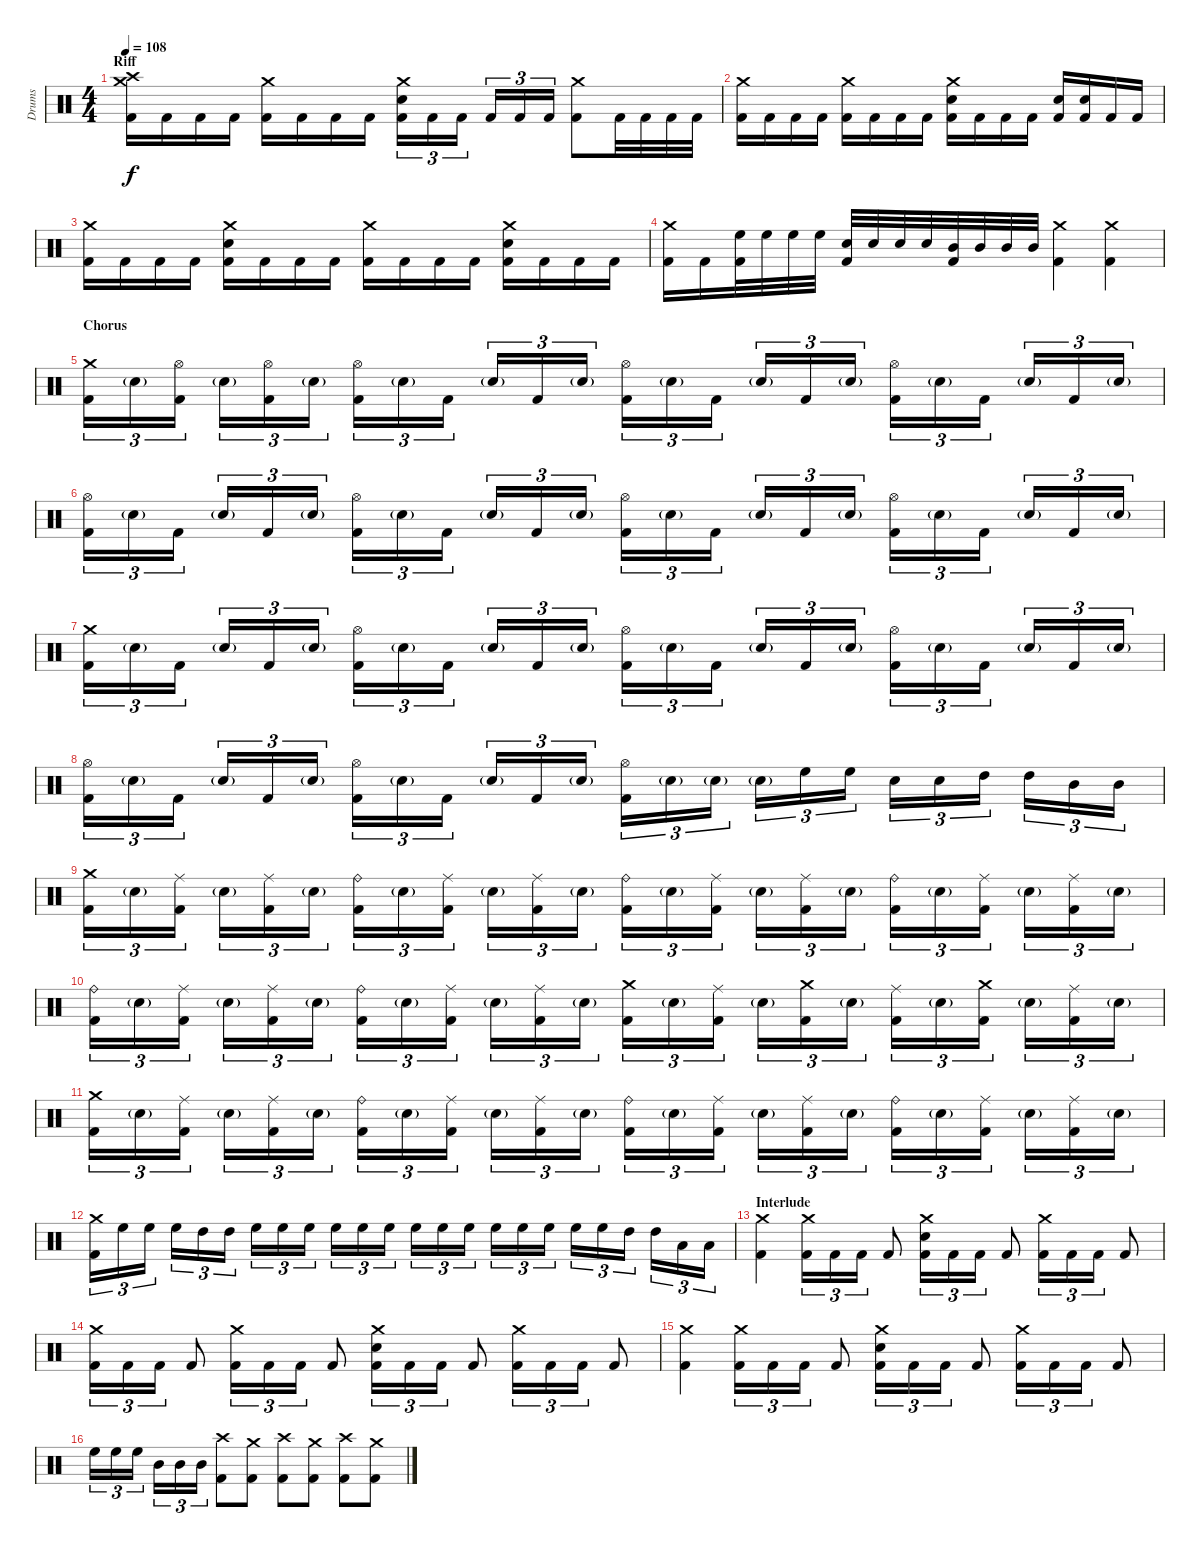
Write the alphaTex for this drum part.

\track ("Drums" "Drums") {instrument percussion}
\staff {score}
\articulation defaults
\ts (4 4)
\section ("" "Riff")
\tempo 108
\clef neutral
\ks c
("Crash medium (hit)" "Crash high (hit)" "Kick (hit) 2").16{dy f} "Kick (hit) 2".16 "Kick (hit) 2".16 "Kick (hit) 2".16 ("Crash medium (hit)" "Kick (hit) 2").16 "Kick (hit) 2".16 "Kick (hit) 2".16 "Kick (hit) 2".16 ("Crash medium (hit)" "Snare (hit) 2" "Kick (hit) 2").16{tu (3 2)} "Kick (hit) 2".16{tu (3 2)} "Kick (hit) 2".16{tu (3 2)} "Kick (hit) 2".16{tu (3 2)} "Kick (hit) 2".16{tu (3 2)} "Kick (hit) 2".16{tu (3 2)} ("Crash medium (hit)" "Kick (hit) 2").8 "Kick (hit) 2".32 "Kick (hit) 2".32 "Kick (hit) 2".32 "Kick (hit) 2".32 |
("Crash medium (hit)" "Kick (hit) 2").16 "Kick (hit) 2".16 "Kick (hit) 2".16 "Kick (hit) 2".16 ("Crash medium (hit)" "Kick (hit) 2").16 "Kick (hit) 2".16 "Kick (hit) 2".16 "Kick (hit) 2".16 ("Crash medium (hit)" "Snare (hit) 2" "Kick (hit) 2").16 "Kick (hit) 2".16 "Kick (hit) 2".16 "Kick (hit) 2".16 ("Snare (hit) 2" "Kick (hit) 2").16 ("Snare (hit) 2" "Kick (hit) 2").16 "Kick (hit) 2".16 "Kick (hit) 2".16 |
("Crash medium (hit)" "Kick (hit) 2").16 "Kick (hit) 2".16 "Kick (hit) 2".16 "Kick (hit) 2".16 ("Crash medium (hit)" "Snare (hit) 2" "Kick (hit) 2").16 "Kick (hit) 2".16 "Kick (hit) 2".16 "Kick (hit) 2".16 ("Crash medium (hit)" "Kick (hit) 2").16 "Kick (hit) 2".16 "Kick (hit) 2".16 "Kick (hit) 2".16 ("Crash medium (hit)" "Snare (hit) 2" "Kick (hit) 2").16 "Kick (hit) 2".16 "Kick (hit) 2".16 "Kick (hit) 2".16 |
("Crash medium (hit)" "Kick (hit) 2").16 "Kick (hit) 2".16 ("High Floor Tom (hit)" "Kick (hit) 2").32 "High Floor Tom (hit)".32 "High Floor Tom (hit)".32 "High Floor Tom (hit)".32 ("Snare (hit) 2" "Kick (hit) 2").32 "Snare (hit) 2".32 "Snare (hit) 2".32 "Snare (hit) 2".32 ("Mid Tom (hit)" "Kick (hit) 2").32 "Mid Tom (hit)".32 "Mid Tom (hit)".32 "Mid Tom (hit)".32 ("Crash medium (hit)" "Kick (hit) 2").4 ("Crash medium (hit)" "Kick (hit) 2").4 |
\section ("" "Chorus")
("Crash medium (hit)" "Kick (hit) 2").16{tu (3 2)} "Snare (hit) 2"{g}.16{tu (3 2)} ("Hi-Hat (open)" "Kick (hit) 2").16{tu (3 2)} "Snare (hit) 2"{g}.16{tu (3 2)} ("Hi-Hat (open)" "Kick (hit) 2").16{tu (3 2)} "Snare (hit) 2"{g}.16{tu (3 2)} ("Hi-Hat (open)" "Kick (hit) 2").16{tu (3 2)} "Snare (hit) 2"{g}.16{tu (3 2)} "Kick (hit) 2".16{tu (3 2)} "Snare (hit) 2"{g}.16{tu (3 2)} "Kick (hit) 2".16{tu (3 2)} "Snare (hit) 2"{g}.16{tu (3 2)} ("Hi-Hat (open)" "Kick (hit) 2").16{tu (3 2)} "Snare (hit) 2"{g}.16{tu (3 2)} "Kick (hit) 2".16{tu (3 2)} "Snare (hit) 2"{g}.16{tu (3 2)} "Kick (hit) 2".16{tu (3 2)} "Snare (hit) 2"{g}.16{tu (3 2)} ("Hi-Hat (open)" "Kick (hit) 2").16{tu (3 2)} "Snare (hit) 2"{g}.16{tu (3 2)} "Kick (hit) 2".16{tu (3 2)} "Snare (hit) 2"{g}.16{tu (3 2)} "Kick (hit) 2".16{tu (3 2)} "Snare (hit) 2"{g}.16{tu (3 2)} |
("Hi-Hat (open)" "Kick (hit) 2").16{tu (3 2)} "Snare (hit) 2"{g}.16{tu (3 2)} "Kick (hit) 2".16{tu (3 2)} "Snare (hit) 2"{g}.16{tu (3 2)} "Kick (hit) 2".16{tu (3 2)} "Snare (hit) 2"{g}.16{tu (3 2)} ("Hi-Hat (open)" "Kick (hit) 2").16{tu (3 2)} "Snare (hit) 2"{g}.16{tu (3 2)} "Kick (hit) 2".16{tu (3 2)} "Snare (hit) 2"{g}.16{tu (3 2)} "Kick (hit) 2".16{tu (3 2)} "Snare (hit) 2"{g}.16{tu (3 2)} ("Hi-Hat (open)" "Kick (hit) 2").16{tu (3 2)} "Snare (hit) 2"{g}.16{tu (3 2)} "Kick (hit) 2".16{tu (3 2)} "Snare (hit) 2"{g}.16{tu (3 2)} "Kick (hit) 2".16{tu (3 2)} "Snare (hit) 2"{g}.16{tu (3 2)} ("Hi-Hat (open)" "Kick (hit) 2").16{tu (3 2)} "Snare (hit) 2"{g}.16{tu (3 2)} "Kick (hit) 2".16{tu (3 2)} "Snare (hit) 2"{g}.16{tu (3 2)} "Kick (hit) 2".16{tu (3 2)} "Snare (hit) 2"{g}.16{tu (3 2)} |
("Crash medium (hit)" "Kick (hit) 2").16{tu (3 2)} "Snare (hit) 2"{g}.16{tu (3 2)} "Kick (hit) 2".16{tu (3 2)} "Snare (hit) 2"{g}.16{tu (3 2)} "Kick (hit) 2".16{tu (3 2)} "Snare (hit) 2"{g}.16{tu (3 2)} ("Hi-Hat (open)" "Kick (hit) 2").16{tu (3 2)} "Snare (hit) 2"{g}.16{tu (3 2)} "Kick (hit) 2".16{tu (3 2)} "Snare (hit) 2"{g}.16{tu (3 2)} "Kick (hit) 2".16{tu (3 2)} "Snare (hit) 2"{g}.16{tu (3 2)} ("Hi-Hat (open)" "Kick (hit) 2").16{tu (3 2)} "Snare (hit) 2"{g}.16{tu (3 2)} "Kick (hit) 2".16{tu (3 2)} "Snare (hit) 2"{g}.16{tu (3 2)} "Kick (hit) 2".16{tu (3 2)} "Snare (hit) 2"{g}.16{tu (3 2)} ("Hi-Hat (open)" "Kick (hit) 2").16{tu (3 2)} "Snare (hit) 2"{g}.16{tu (3 2)} "Kick (hit) 2".16{tu (3 2)} "Snare (hit) 2"{g}.16{tu (3 2)} "Kick (hit) 2".16{tu (3 2)} "Snare (hit) 2"{g}.16{tu (3 2)} |
("Hi-Hat (open)" "Kick (hit) 2").16{tu (3 2)} "Snare (hit) 2"{g}.16{tu (3 2)} "Kick (hit) 2".16{tu (3 2)} "Snare (hit) 2"{g}.16{tu (3 2)} "Kick (hit) 2".16{tu (3 2)} "Snare (hit) 2"{g}.16{tu (3 2)} ("Hi-Hat (open)" "Kick (hit) 2").16{tu (3 2)} "Snare (hit) 2"{g}.16{tu (3 2)} "Kick (hit) 2".16{tu (3 2)} "Snare (hit) 2"{g}.16{tu (3 2)} "Kick (hit) 2".16{tu (3 2)} "Snare (hit) 2"{g}.16{tu (3 2)} ("Hi-Hat (open)" "Kick (hit) 2").16{tu (3 2)} "Snare (hit) 2"{g}.16{tu (3 2)} "Snare (hit) 2"{g}.16{tu (3 2)} "Snare (hit) 2"{g}.16{tu (3 2)} "High Floor Tom (hit)".16{tu (3 2)} "High Floor Tom (hit)".16{tu (3 2)} "Snare (hit) 2".16{tu (3 2)} "Snare (hit) 2".16{tu (3 2)} "High Tom (hit)".16{tu (3 2)} "High Tom (hit)".16{tu (3 2)} "Mid Tom (hit)".16{tu (3 2)} "Mid Tom (hit)".16{tu (3 2)} |
("Crash medium (hit)" "Kick (hit) 2").16{tu (3 2)} "Snare (hit) 2"{g}.16{tu (3 2)} ("Ride (middle)" "Kick (hit) 2").16{tu (3 2)} "Snare (hit) 2"{g}.16{tu (3 2)} ("Ride (middle)" "Kick (hit) 2").16{tu (3 2)} "Snare (hit) 2"{g}.16{tu (3 2)} ("Ride (bell)" "Kick (hit) 2").16{tu (3 2)} "Snare (hit) 2"{g}.16{tu (3 2)} ("Ride (middle)" "Kick (hit) 2").16{tu (3 2)} "Snare (hit) 2"{g}.16{tu (3 2)} ("Ride (middle)" "Kick (hit) 2").16{tu (3 2)} "Snare (hit) 2"{g}.16{tu (3 2)} ("Ride (bell)" "Kick (hit) 2").16{tu (3 2)} "Snare (hit) 2"{g}.16{tu (3 2)} ("Ride (middle)" "Kick (hit) 2").16{tu (3 2)} "Snare (hit) 2"{g}.16{tu (3 2)} ("Ride (middle)" "Kick (hit) 2").16{tu (3 2)} "Snare (hit) 2"{g}.16{tu (3 2)} ("Ride (bell)" "Kick (hit) 2").16{tu (3 2)} "Snare (hit) 2"{g}.16{tu (3 2)} ("Ride (middle)" "Kick (hit) 2").16{tu (3 2)} "Snare (hit) 2"{g}.16{tu (3 2)} ("Ride (middle)" "Kick (hit) 2").16{tu (3 2)} "Snare (hit) 2"{g}.16{tu (3 2)} |
("Ride (bell)" "Kick (hit) 2").16{tu (3 2)} "Snare (hit) 2"{g}.16{tu (3 2)} ("Ride (middle)" "Kick (hit) 2").16{tu (3 2)} "Snare (hit) 2"{g}.16{tu (3 2)} ("Ride (middle)" "Kick (hit) 2").16{tu (3 2)} "Snare (hit) 2"{g}.16{tu (3 2)} ("Ride (bell)" "Kick (hit) 2").16{tu (3 2)} "Snare (hit) 2"{g}.16{tu (3 2)} ("Ride (middle)" "Kick (hit) 2").16{tu (3 2)} "Snare (hit) 2"{g}.16{tu (3 2)} ("Ride (middle)" "Kick (hit) 2").16{tu (3 2)} "Snare (hit) 2"{g}.16{tu (3 2)} ("Crash medium (hit)" "Kick (hit) 2").16{tu (3 2)} "Snare (hit) 2"{g}.16{tu (3 2)} ("Ride (middle)" "Kick (hit) 2").16{tu (3 2)} "Snare (hit) 2"{g}.16{tu (3 2)} ("Crash medium (hit)" "Kick (hit) 2").16{tu (3 2)} "Snare (hit) 2"{g}.16{tu (3 2)} ("Ride (middle)" "Kick (hit) 2").16{tu (3 2)} "Snare (hit) 2"{g}.16{tu (3 2)} ("Crash medium (hit)" "Kick (hit) 2").16{tu (3 2)} "Snare (hit) 2"{g}.16{tu (3 2)} ("Ride (middle)" "Kick (hit) 2").16{tu (3 2)} "Snare (hit) 2"{g}.16{tu (3 2)} |
("Crash medium (hit)" "Kick (hit) 2").16{tu (3 2)} "Snare (hit) 2"{g}.16{tu (3 2)} ("Ride (middle)" "Kick (hit) 2").16{tu (3 2)} "Snare (hit) 2"{g}.16{tu (3 2)} ("Ride (middle)" "Kick (hit) 2").16{tu (3 2)} "Snare (hit) 2"{g}.16{tu (3 2)} ("Ride (bell)" "Kick (hit) 2").16{tu (3 2)} "Snare (hit) 2"{g}.16{tu (3 2)} ("Ride (middle)" "Kick (hit) 2").16{tu (3 2)} "Snare (hit) 2"{g}.16{tu (3 2)} ("Ride (middle)" "Kick (hit) 2").16{tu (3 2)} "Snare (hit) 2"{g}.16{tu (3 2)} ("Ride (bell)" "Kick (hit) 2").16{tu (3 2)} "Snare (hit) 2"{g}.16{tu (3 2)} ("Ride (middle)" "Kick (hit) 2").16{tu (3 2)} "Snare (hit) 2"{g}.16{tu (3 2)} ("Ride (middle)" "Kick (hit) 2").16{tu (3 2)} "Snare (hit) 2"{g}.16{tu (3 2)} ("Ride (bell)" "Kick (hit) 2").16{tu (3 2)} "Snare (hit) 2"{g}.16{tu (3 2)} ("Ride (middle)" "Kick (hit) 2").16{tu (3 2)} "Snare (hit) 2"{g}.16{tu (3 2)} ("Ride (middle)" "Kick (hit) 2").16{tu (3 2)} "Snare (hit) 2"{g}.16{tu (3 2)} |
("Crash medium (hit)" "Kick (hit) 2").16{tu (3 2)} "High Floor Tom (hit)".16{tu (3 2)} "High Floor Tom (hit)".16{tu (3 2)} "High Floor Tom (hit)".16{tu (3 2)} "High Tom (hit)".16{tu (3 2)} "High Tom (hit)".16{tu (3 2)} "High Floor Tom (hit)".16{tu (3 2)} "High Floor Tom (hit)".16{tu (3 2)} "High Floor Tom (hit)".16{tu (3 2)} "High Floor Tom (hit)".16{tu (3 2)} "High Floor Tom (hit)".16{tu (3 2)} "High Floor Tom (hit)".16{tu (3 2)} "High Floor Tom (hit)".16{tu (3 2)} "High Floor Tom (hit)".16{tu (3 2)} "High Floor Tom (hit)".16{tu (3 2)} "High Floor Tom (hit)".16{tu (3 2)} "High Floor Tom (hit)".16{tu (3 2)} "High Floor Tom (hit)".16{tu (3 2)} "High Floor Tom (hit)".16{tu (3 2)} "High Floor Tom (hit)".16{tu (3 2)} "High Tom (hit)".16{tu (3 2)} "High Tom (hit)".16{tu (3 2)} "Low Tom (hit)".16{tu (3 2)} "Low Tom (hit)".16{tu (3 2)} |
\section ("" "Interlude")
("Crash medium (hit)" "Kick (hit) 2").4 ("Crash medium (hit)" "Kick (hit) 2").16{tu (3 2)} "Kick (hit) 2".16{tu (3 2)} "Kick (hit) 2".16{tu (3 2)} "Kick (hit) 2".8 ("Crash medium (hit)" "Snare (hit) 2" "Kick (hit) 2").16{tu (3 2)} "Kick (hit) 2".16{tu (3 2)} "Kick (hit) 2".16{tu (3 2)} "Kick (hit) 2".8 ("Crash medium (hit)" "Kick (hit) 2").16{tu (3 2)} "Kick (hit) 2".16{tu (3 2)} "Kick (hit) 2".16{tu (3 2)} "Kick (hit) 2".8 |
("Crash medium (hit)" "Kick (hit) 2").16{tu (3 2)} "Kick (hit) 2".16{tu (3 2)} "Kick (hit) 2".16{tu (3 2)} "Kick (hit) 2".8 ("Crash medium (hit)" "Kick (hit) 2").16{tu (3 2)} "Kick (hit) 2".16{tu (3 2)} "Kick (hit) 2".16{tu (3 2)} "Kick (hit) 2".8 ("Crash medium (hit)" "Snare (hit) 2" "Kick (hit) 2").16{tu (3 2)} "Kick (hit) 2".16{tu (3 2)} "Kick (hit) 2".16{tu (3 2)} "Kick (hit) 2".8 ("Crash medium (hit)" "Kick (hit) 2").16{tu (3 2)} "Kick (hit) 2".16{tu (3 2)} "Kick (hit) 2".16{tu (3 2)} "Kick (hit) 2".8 |
("Crash medium (hit)" "Kick (hit) 2").4 ("Crash medium (hit)" "Kick (hit) 2").16{tu (3 2)} "Kick (hit) 2".16{tu (3 2)} "Kick (hit) 2".16{tu (3 2)} "Kick (hit) 2".8 ("Crash medium (hit)" "Snare (hit) 2" "Kick (hit) 2").16{tu (3 2)} "Kick (hit) 2".16{tu (3 2)} "Kick (hit) 2".16{tu (3 2)} "Kick (hit) 2".8 ("Crash medium (hit)" "Kick (hit) 2").16{tu (3 2)} "Kick (hit) 2".16{tu (3 2)} "Kick (hit) 2".16{tu (3 2)} "Kick (hit) 2".8 |
"High Floor Tom (hit)".16{tu (3 2)} "High Floor Tom (hit)".16{tu (3 2)} "High Floor Tom (hit)".16{tu (3 2)} "Mid Tom (hit)".16{tu (3 2)} "Mid Tom (hit)".16{tu (3 2)} "Mid Tom (hit)".16{tu (3 2)} ("Crash high (hit)" "Kick (hit) 2").8 ("Crash medium (hit)" "Kick (hit) 2").8 ("Crash high (hit)" "Kick (hit) 2").8 ("Crash medium (hit)" "Kick (hit) 2").8 ("Crash high (hit)" "Kick (hit) 2").8 ("Crash medium (hit)" "Kick (hit) 2").8
